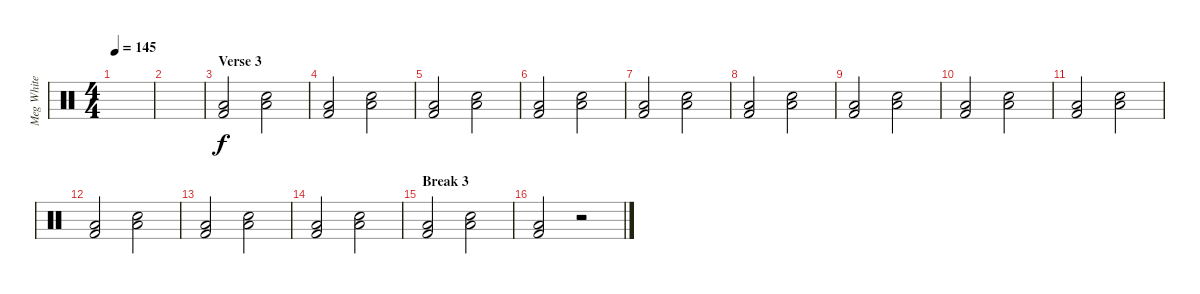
\track ("Meg White - Drums" "Meg White ") {instrument percussion}
\staff {score}
\articulation defaults
\ts (4 4)
\tempo 145
\clef neutral
\ks c
|
|
\section ("" "Verse 3")
("Kick (hit) 2" "Low Floor Tom (hit)").2 ("Snare (hit) 2" "Low Floor Tom (hit)").2 |
("Kick (hit) 2" "Low Floor Tom (hit)").2 ("Snare (hit) 2" "Low Floor Tom (hit)").2 |
("Kick (hit) 2" "Low Floor Tom (hit)").2 ("Snare (hit) 2" "Low Floor Tom (hit)").2 |
("Kick (hit) 2" "Low Floor Tom (hit)").2 ("Snare (hit) 2" "Low Floor Tom (hit)").2 |
("Kick (hit) 2" "Low Floor Tom (hit)").2 ("Snare (hit) 2" "Low Floor Tom (hit)").2 |
("Kick (hit) 2" "Low Floor Tom (hit)").2 ("Snare (hit) 2" "Low Floor Tom (hit)").2 |
("Kick (hit) 2" "Low Floor Tom (hit)").2 ("Snare (hit) 2" "Low Floor Tom (hit)").2 |
("Kick (hit) 2" "Low Floor Tom (hit)").2 ("Snare (hit) 2" "Low Floor Tom (hit)").2 |
("Kick (hit) 2" "Low Floor Tom (hit)").2 ("Snare (hit) 2" "Low Floor Tom (hit)").2 |
("Kick (hit) 2" "Low Floor Tom (hit)").2 ("Snare (hit) 2" "Low Floor Tom (hit)").2 |
("Kick (hit) 2" "Low Floor Tom (hit)").2 ("Snare (hit) 2" "Low Floor Tom (hit)").2 |
("Kick (hit) 2" "Low Floor Tom (hit)").2 ("Snare (hit) 2" "Low Floor Tom (hit)").2 |
\section ("" "Break 3")
("Kick (hit) 2" "Low Floor Tom (hit)").2 ("Snare (hit) 2" "Low Floor Tom (hit)").2 |
("Kick (hit) 2" "Low Floor Tom (hit)").2 r.2
